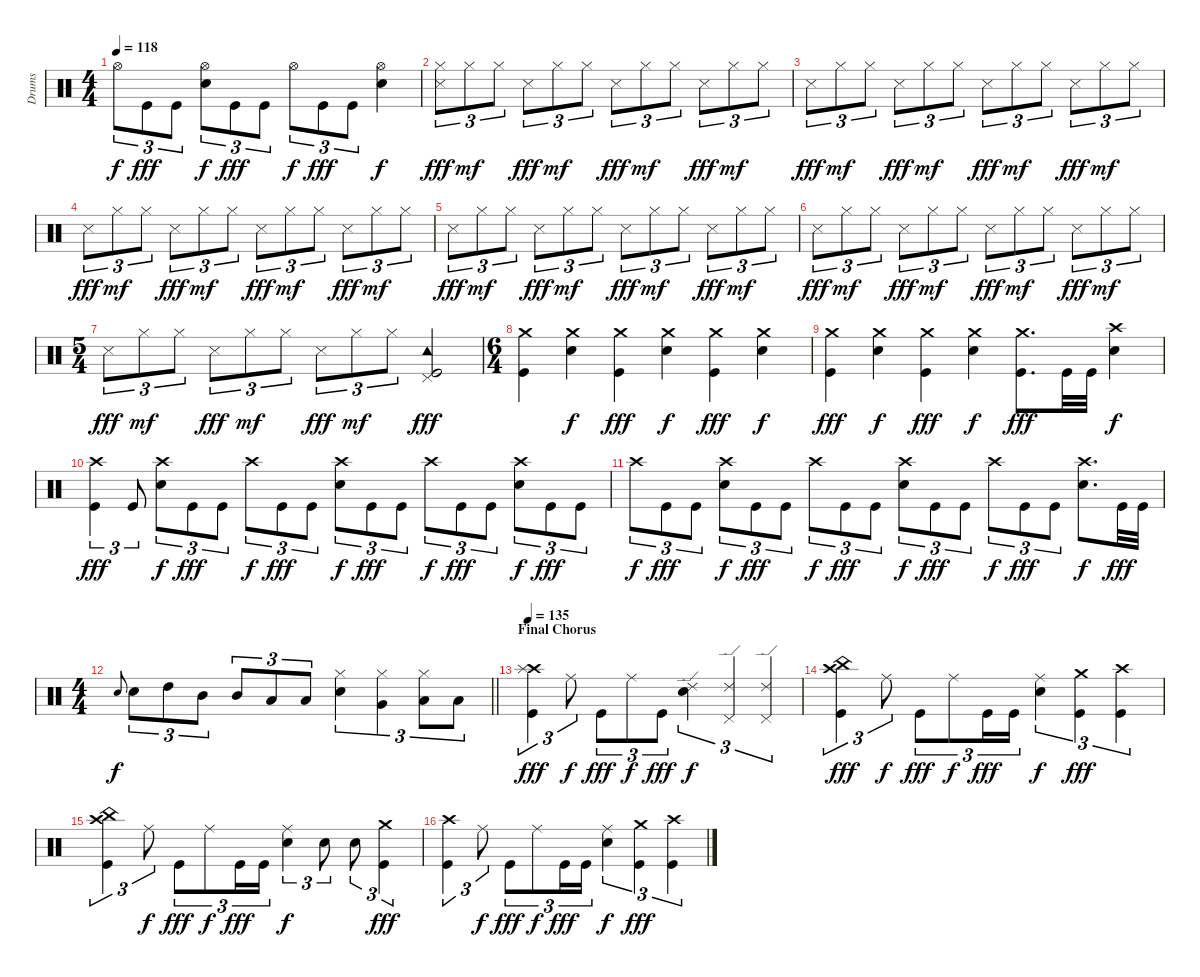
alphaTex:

\track ("Drums" "Drums") {instrument percussion}
\staff {score}
\articulation defaults
\ts (4 4)
\tempo 118
\clef neutral
\ks c "Hi-Hat (open)".8{tu (3 2) dy f} "Kick (hit)".8{tu (3 2) dy fff} "Kick (hit)".8{tu (3 2)}
("Hi-Hat (open)" "Electric Snare (hit)").8{tu (3 2) dy f} "Kick (hit)".8{tu (3 2) dy fff} "Kick (hit)".8{tu (3 2)} "Hi-Hat (open)".8{tu (3 2) dy f} "Kick (hit)".8{tu (3 2) dy fff} "Kick (hit)".8{tu (3 2)} ("Hi-Hat (open)" "Electric Snare (hit)").4{dy f} |
("Hi-Hat (closed)" "Metronome (hit)").8{tu (3 2) dy fff} "Hi-Hat (closed)".8{tu (3 2) dy mf} "Hi-Hat (closed)".8{tu (3 2)} "Metronome (hit)".8{tu (3 2) dy fff} "Hi-Hat (closed)".8{tu (3 2) dy mf} "Hi-Hat (closed)".8{tu (3 2)} "Metronome (hit)".8{tu (3 2) dy fff} "Hi-Hat (closed)".8{tu (3 2) dy mf} "Hi-Hat (closed)".8{tu (3 2)} "Metronome (hit)".8{tu (3 2) dy fff} "Hi-Hat (closed)".8{tu (3 2) dy mf} "Hi-Hat (closed)".8{tu (3 2)} |
"Metronome (hit)".8{tu (3 2) dy fff} "Hi-Hat (closed)".8{tu (3 2) dy mf} "Hi-Hat (closed)".8{tu (3 2)} "Metronome (hit)".8{tu (3 2) dy fff} "Hi-Hat (closed)".8{tu (3 2) dy mf} "Hi-Hat (closed)".8{tu (3 2)} "Metronome (hit)".8{tu (3 2) dy fff} "Hi-Hat (closed)".8{tu (3 2) dy mf} "Hi-Hat (closed)".8{tu (3 2)} "Metronome (hit)".8{tu (3 2) dy fff} "Hi-Hat (closed)".8{tu (3 2) dy mf} "Hi-Hat (closed)".8{tu (3 2)} |
"Metronome (hit)".8{tu (3 2) dy fff} "Hi-Hat (closed)".8{tu (3 2) dy mf} "Hi-Hat (closed)".8{tu (3 2)} "Metronome (hit)".8{tu (3 2) dy fff} "Hi-Hat (closed)".8{tu (3 2) dy mf} "Hi-Hat (closed)".8{tu (3 2)} "Metronome (hit)".8{tu (3 2) dy fff} "Hi-Hat (closed)".8{tu (3 2) dy mf} "Hi-Hat (closed)".8{tu (3 2)} "Metronome (hit)".8{tu (3 2) dy fff} "Hi-Hat (closed)".8{tu (3 2) dy mf} "Hi-Hat (closed)".8{tu (3 2)} |
"Metronome (hit)".8{tu (3 2) dy fff} "Hi-Hat (closed)".8{tu (3 2) dy mf} "Hi-Hat (closed)".8{tu (3 2)} "Metronome (hit)".8{tu (3 2) dy fff} "Hi-Hat (closed)".8{tu (3 2) dy mf} "Hi-Hat (closed)".8{tu (3 2)} "Metronome (hit)".8{tu (3 2) dy fff} "Hi-Hat (closed)".8{tu (3 2) dy mf} "Hi-Hat (closed)".8{tu (3 2)} "Metronome (hit)".8{tu (3 2) dy fff} "Hi-Hat (closed)".8{tu (3 2) dy mf} "Hi-Hat (closed)".8{tu (3 2)} |
"Metronome (hit)".8{tu (3 2) dy fff} "Hi-Hat (closed)".8{tu (3 2) dy mf} "Hi-Hat (closed)".8{tu (3 2)} "Metronome (hit)".8{tu (3 2) dy fff} "Hi-Hat (closed)".8{tu (3 2) dy mf} "Hi-Hat (closed)".8{tu (3 2)} "Metronome (hit)".8{tu (3 2) dy fff} "Hi-Hat (closed)".8{tu (3 2) dy mf} "Hi-Hat (closed)".8{tu (3 2)} "Metronome (hit)".8{tu (3 2) dy fff} "Hi-Hat (closed)".8{tu (3 2) dy mf} "Hi-Hat (closed)".8{tu (3 2)} |
\ts (5 4)
"Metronome (hit)".8{tu (3 2) dy fff} "Hi-Hat (closed)".8{tu (3 2) dy mf} "Hi-Hat (closed)".8{tu (3 2)} "Metronome (hit)".8{tu (3 2) dy fff} "Hi-Hat (closed)".8{tu (3 2) dy mf} "Hi-Hat (closed)".8{tu (3 2)} "Metronome (hit)".8{tu (3 2) dy fff} "Hi-Hat (closed)".8{tu (3 2) dy mf} "Hi-Hat (closed)".8{tu (3 2)} ("Pedal Hi-Hat (hit)" "Tambourine (hit)" "Kick (hit)").2{dy fff} |
\ts (6 4)
("Crash medium (hit)" "Kick (hit)").4 ("Crash medium (hit)" "Electric Snare (hit)").4{dy f} ("Crash medium (hit)" "Kick (hit)").4{dy fff} ("Crash medium (hit)" "Electric Snare (hit)").4{dy f} ("Crash medium (hit)" "Kick (hit)").4{dy fff} ("Crash medium (hit)" "Electric Snare (hit)").4{dy f} |
("Crash medium (hit)" "Kick (hit)").4{dy fff} ("Crash medium (hit)" "Electric Snare (hit)").4{dy f} ("Crash medium (hit)" "Kick (hit)").4{dy fff} ("Crash medium (hit)" "Electric Snare (hit)").4{dy f} ("Crash medium (hit)" "Kick (hit)").8{d dy fff} "Kick (hit)".32 "Kick (hit)".32 ("Crash high (hit)" "Electric Snare (hit)").4{dy f} |
("Crash high (hit)" "Kick (hit)").4{tu (3 2) dy fff} "Kick (hit)".8{tu (3 2)} ("Crash high (hit)" "Electric Snare (hit)").8{tu (3 2) dy f} "Kick (hit)".8{tu (3 2) dy fff} "Kick (hit)".8{tu (3 2)} "Crash high (hit)".8{tu (3 2) dy f} "Kick (hit)".8{tu (3 2) dy fff} "Kick (hit)".8{tu (3 2)} ("Crash high (hit)" "Electric Snare (hit)").8{tu (3 2) dy f} "Kick (hit)".8{tu (3 2) dy fff} "Kick (hit)".8{tu (3 2)} "Crash high (hit)".8{tu (3 2) dy f} "Kick (hit)".8{tu (3 2) dy fff} "Kick (hit)".8{tu (3 2)} ("Crash high (hit)" "Electric Snare (hit)").8{tu (3 2) dy f} "Kick (hit)".8{tu (3 2) dy fff} "Kick (hit)".8{tu (3 2)} |
"Crash high (hit)".8{tu (3 2) dy f} "Kick (hit)".8{tu (3 2) dy fff} "Kick (hit)".8{tu (3 2)} ("Crash high (hit)" "Electric Snare (hit)").8{tu (3 2) dy f} "Kick (hit)".8{tu (3 2) dy fff} "Kick (hit)".8{tu (3 2)} "Crash high (hit)".8{tu (3 2) dy f} "Kick (hit)".8{tu (3 2) dy fff} "Kick (hit)".8{tu (3 2)} ("Crash high (hit)" "Electric Snare (hit)").8{tu (3 2) dy f} "Kick (hit)".8{tu (3 2) dy fff} "Kick (hit)".8{tu (3 2)} "Crash high (hit)".8{tu (3 2) dy f} "Kick (hit)".8{tu (3 2) dy fff} "Kick (hit)".8{tu (3 2)} ("Crash high (hit)" "Electric Snare (hit)").8{d dy f} "Kick (hit)".32{dy fff} "Kick (hit)".32 |
\ts (4 4)
\barLineRight lightlight "Electric Snare (hit)".8{gr onbeat dy f} "Electric Snare (hit)".8{tu (3 2)} "High Tom (hit)".8{tu (3 2)} "Mid Tom (hit)".8{tu (3 2)} "Mid Tom (hit)".8{tu (3 2)} "Low Tom (hit)".8{tu (3 2)} "Low Tom (hit)".8{tu (3 2)}
("Hi-Hat (closed)" "Electric Snare (hit)").4{tu (3 2)} ("Hi-Hat (closed)" "Very Low Tom (hit)").4{tu (3 2)} ("Hi-Hat (closed)" "Low Floor Tom (hit)").8{tu (3 2)} "Low Floor Tom (hit)".8{tu (3 2)} |
\section ("" "Final Chorus")
\tempo 135
("Crash high (hit)" "Splash (hit)" "Kick (hit)").4{tu (3 2) dy fff} "Ride (middle)".8{tu (3 2) dy f} "Kick (hit)".8{tu (3 2) dy fff} "Ride (middle)".8{tu (3 2) dy f} "Kick (hit)".8{tu (3 2) dy fff} ("Ride (edge) 2" "Electric Snare (hit)").4{tu (3 2) dy f} ("Ride (edge) 2" "Pedal Hi-Hat (hit)").4{tu (3 2)} ("Ride (edge) 2" "Pedal Hi-Hat (hit)").4{tu (3 2)} |
("Crash high (hit)" "China (hit)" "Kick (hit)").4{tu (3 2) dy fff} "Ride (middle)".8{tu (3 2) dy f} "Kick (hit)".8{tu (3 2) dy fff} "Ride (middle)".8{tu (3 2) dy f} "Kick (hit)".16{tu (3 2) dy fff} "Kick (hit)".16{tu (3 2)} ("Ride (middle)" "Electric Snare (hit)").4{tu (3 2) dy f} ("Crash medium (hit)" "Kick (hit)").4{tu (3 2) dy fff} ("Crash high (hit)" "Kick (hit)").4{tu (3 2)} |
("Crash high (hit)" "China (hit)" "Kick (hit)").4{tu (3 2)} "Ride (middle)".8{tu (3 2) dy f} "Kick (hit)".8{tu (3 2) dy fff} "Ride (middle)".8{tu (3 2) dy f} "Kick (hit)".16{tu (3 2) dy fff} "Kick (hit)".16{tu (3 2)} ("Ride (middle)" "Electric Snare (hit)").4{tu (3 2) dy f} "Electric Snare (hit)".8{tu (3 2)} "Electric Snare (hit)".8{tu (3 2)} ("Crash medium (hit)" "Kick (hit)").4{tu (3 2) dy fff} |
("Crash high (hit)" "Kick (hit)").4{tu (3 2)} "Ride (middle)".8{tu (3 2) dy f} "Kick (hit)".8{tu (3 2) dy fff} "Ride (middle)".8{tu (3 2) dy f} "Kick (hit)".16{tu (3 2) dy fff} "Kick (hit)".16{tu (3 2)} ("Ride (middle)" "Electric Snare (hit)").4{tu (3 2) dy f} ("Crash medium (hit)" "Kick (hit)").4{tu (3 2) dy fff} ("Crash high (hit)" "Kick (hit)").4{tu (3 2)}
